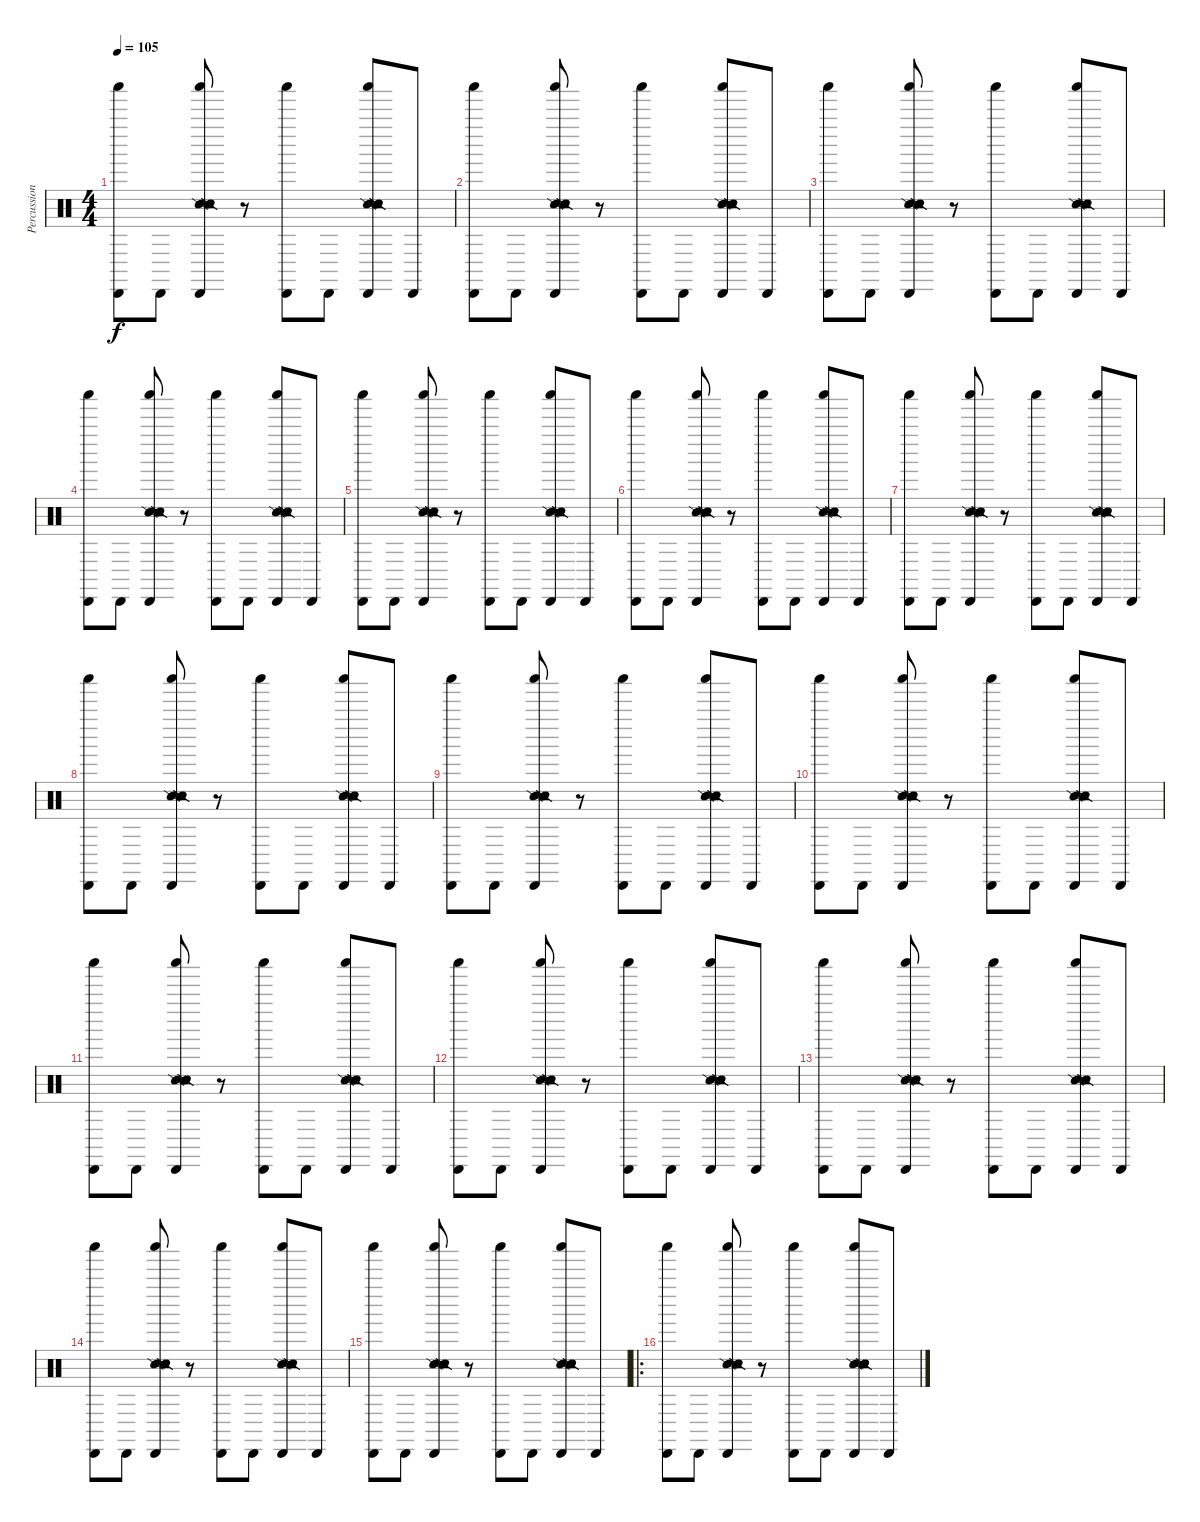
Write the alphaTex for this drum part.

\track ("Percussions" "Percussion") {instrument percussion}
\staff {score}
\articulation defaults
\ts (4 4)
\tempo 105
\clef neutral
\ks c
("Cabasa (hit)" "Shaker (hit)").8{dy f} "Cabasa (hit)".8 ("Cabasa (hit)" "Shaker (hit)" "Snare (side stick) 2" "Snare (side stick) 2" "Snare (side stick) 2" "Tambourine (hit)").8 r.8 ("Cabasa (hit)" "Shaker (hit)").8 "Cabasa (hit)".8 ("Cabasa (hit)" "Shaker (hit)" "Snare (side stick) 2" "Snare (side stick) 2" "Snare (side stick) 2" "Tambourine (hit)").8 "Cabasa (hit)".8 |
("Cabasa (hit)" "Shaker (hit)").8 "Cabasa (hit)".8 ("Cabasa (hit)" "Shaker (hit)" "Snare (side stick) 2" "Snare (side stick) 2" "Snare (side stick) 2" "Tambourine (hit)").8 r.8 ("Cabasa (hit)" "Shaker (hit)").8 "Cabasa (hit)".8 ("Cabasa (hit)" "Shaker (hit)" "Snare (side stick) 2" "Snare (side stick) 2" "Snare (side stick) 2" "Tambourine (hit)").8 "Cabasa (hit)".8 |
("Cabasa (hit)" "Shaker (hit)").8 "Cabasa (hit)".8 ("Cabasa (hit)" "Shaker (hit)" "Snare (side stick) 2" "Snare (side stick) 2" "Snare (side stick) 2" "Tambourine (hit)").8 r.8 ("Cabasa (hit)" "Shaker (hit)").8 "Cabasa (hit)".8 ("Cabasa (hit)" "Shaker (hit)" "Snare (side stick) 2" "Snare (side stick) 2" "Snare (side stick) 2" "Tambourine (hit)").8 "Cabasa (hit)".8 |
("Cabasa (hit)" "Shaker (hit)").8 "Cabasa (hit)".8 ("Cabasa (hit)" "Shaker (hit)" "Snare (side stick) 2" "Snare (side stick) 2" "Snare (side stick) 2" "Tambourine (hit)").8 r.8 ("Cabasa (hit)" "Shaker (hit)").8 "Cabasa (hit)".8 ("Cabasa (hit)" "Shaker (hit)" "Snare (side stick) 2" "Snare (side stick) 2" "Snare (side stick) 2" "Tambourine (hit)").8 "Cabasa (hit)".8 |
("Cabasa (hit)" "Shaker (hit)").8 "Cabasa (hit)".8 ("Cabasa (hit)" "Shaker (hit)" "Snare (side stick) 2" "Snare (side stick) 2" "Snare (side stick) 2" "Tambourine (hit)").8 r.8 ("Cabasa (hit)" "Shaker (hit)").8 "Cabasa (hit)".8 ("Cabasa (hit)" "Shaker (hit)" "Snare (side stick) 2" "Snare (side stick) 2" "Snare (side stick) 2" "Tambourine (hit)").8 "Cabasa (hit)".8 |
("Cabasa (hit)" "Shaker (hit)").8 "Cabasa (hit)".8 ("Cabasa (hit)" "Shaker (hit)" "Snare (side stick) 2" "Snare (side stick) 2" "Snare (side stick) 2" "Tambourine (hit)").8 r.8 ("Cabasa (hit)" "Shaker (hit)").8 "Cabasa (hit)".8 ("Cabasa (hit)" "Shaker (hit)" "Snare (side stick) 2" "Snare (side stick) 2" "Snare (side stick) 2" "Tambourine (hit)").8 "Cabasa (hit)".8 |
("Cabasa (hit)" "Shaker (hit)").8 "Cabasa (hit)".8 ("Cabasa (hit)" "Shaker (hit)" "Snare (side stick) 2" "Snare (side stick) 2" "Snare (side stick) 2" "Tambourine (hit)").8 r.8 ("Cabasa (hit)" "Shaker (hit)").8 "Cabasa (hit)".8 ("Cabasa (hit)" "Shaker (hit)" "Snare (side stick) 2" "Snare (side stick) 2" "Snare (side stick) 2" "Tambourine (hit)").8 "Cabasa (hit)".8 |
("Cabasa (hit)" "Shaker (hit)").8 "Cabasa (hit)".8 ("Cabasa (hit)" "Shaker (hit)" "Snare (side stick) 2" "Snare (side stick) 2" "Snare (side stick) 2" "Tambourine (hit)").8 r.8 ("Cabasa (hit)" "Shaker (hit)").8 "Cabasa (hit)".8 ("Cabasa (hit)" "Shaker (hit)" "Snare (side stick) 2" "Snare (side stick) 2" "Snare (side stick) 2" "Tambourine (hit)").8 "Cabasa (hit)".8 |
("Cabasa (hit)" "Shaker (hit)").8 "Cabasa (hit)".8 ("Cabasa (hit)" "Shaker (hit)" "Snare (side stick) 2" "Snare (side stick) 2" "Snare (side stick) 2" "Tambourine (hit)").8 r.8 ("Cabasa (hit)" "Shaker (hit)").8 "Cabasa (hit)".8 ("Cabasa (hit)" "Shaker (hit)" "Snare (side stick) 2" "Snare (side stick) 2" "Snare (side stick) 2" "Tambourine (hit)").8 "Cabasa (hit)".8 |
("Cabasa (hit)" "Shaker (hit)").8 "Cabasa (hit)".8 ("Cabasa (hit)" "Shaker (hit)" "Snare (side stick) 2" "Snare (side stick) 2" "Snare (side stick) 2" "Tambourine (hit)").8 r.8 ("Cabasa (hit)" "Shaker (hit)").8 "Cabasa (hit)".8 ("Cabasa (hit)" "Shaker (hit)" "Snare (side stick) 2" "Snare (side stick) 2" "Snare (side stick) 2" "Tambourine (hit)").8 "Cabasa (hit)".8 |
("Cabasa (hit)" "Shaker (hit)").8 "Cabasa (hit)".8 ("Cabasa (hit)" "Shaker (hit)" "Snare (side stick) 2" "Snare (side stick) 2" "Snare (side stick) 2" "Tambourine (hit)").8 r.8 ("Cabasa (hit)" "Shaker (hit)").8 "Cabasa (hit)".8 ("Cabasa (hit)" "Shaker (hit)" "Snare (side stick) 2" "Snare (side stick) 2" "Snare (side stick) 2" "Tambourine (hit)").8 "Cabasa (hit)".8 |
("Cabasa (hit)" "Shaker (hit)").8 "Cabasa (hit)".8 ("Cabasa (hit)" "Shaker (hit)" "Snare (side stick) 2" "Snare (side stick) 2" "Snare (side stick) 2" "Tambourine (hit)").8 r.8 ("Cabasa (hit)" "Shaker (hit)").8 "Cabasa (hit)".8 ("Cabasa (hit)" "Shaker (hit)" "Snare (side stick) 2" "Snare (side stick) 2" "Snare (side stick) 2" "Tambourine (hit)").8 "Cabasa (hit)".8 |
("Cabasa (hit)" "Shaker (hit)").8 "Cabasa (hit)".8 ("Cabasa (hit)" "Shaker (hit)" "Snare (side stick) 2" "Snare (side stick) 2" "Snare (side stick) 2" "Tambourine (hit)").8 r.8 ("Cabasa (hit)" "Shaker (hit)").8 "Cabasa (hit)".8 ("Cabasa (hit)" "Shaker (hit)" "Snare (side stick) 2" "Snare (side stick) 2" "Snare (side stick) 2" "Tambourine (hit)").8 "Cabasa (hit)".8 |
("Cabasa (hit)" "Shaker (hit)").8 "Cabasa (hit)".8 ("Cabasa (hit)" "Shaker (hit)" "Snare (side stick) 2" "Snare (side stick) 2" "Snare (side stick) 2" "Tambourine (hit)").8 r.8 ("Cabasa (hit)" "Shaker (hit)").8 "Cabasa (hit)".8 ("Cabasa (hit)" "Shaker (hit)" "Snare (side stick) 2" "Snare (side stick) 2" "Snare (side stick) 2" "Tambourine (hit)").8 "Cabasa (hit)".8 |
("Cabasa (hit)" "Shaker (hit)").8 "Cabasa (hit)".8 ("Cabasa (hit)" "Shaker (hit)" "Snare (side stick) 2" "Snare (side stick) 2" "Snare (side stick) 2" "Tambourine (hit)").8 r.8 ("Cabasa (hit)" "Shaker (hit)").8 "Cabasa (hit)".8 ("Cabasa (hit)" "Shaker (hit)" "Snare (side stick) 2" "Snare (side stick) 2" "Snare (side stick) 2" "Tambourine (hit)").8 "Cabasa (hit)".8 |
\ro
("Cabasa (hit)" "Shaker (hit)").8 "Cabasa (hit)".8 ("Cabasa (hit)" "Shaker (hit)" "Snare (side stick) 2" "Snare (side stick) 2" "Snare (side stick) 2" "Tambourine (hit)").8 r.8 ("Cabasa (hit)" "Shaker (hit)").8 "Cabasa (hit)".8 ("Cabasa (hit)" "Shaker (hit)" "Snare (side stick) 2" "Snare (side stick) 2" "Snare (side stick) 2" "Tambourine (hit)").8 "Cabasa (hit)".8
